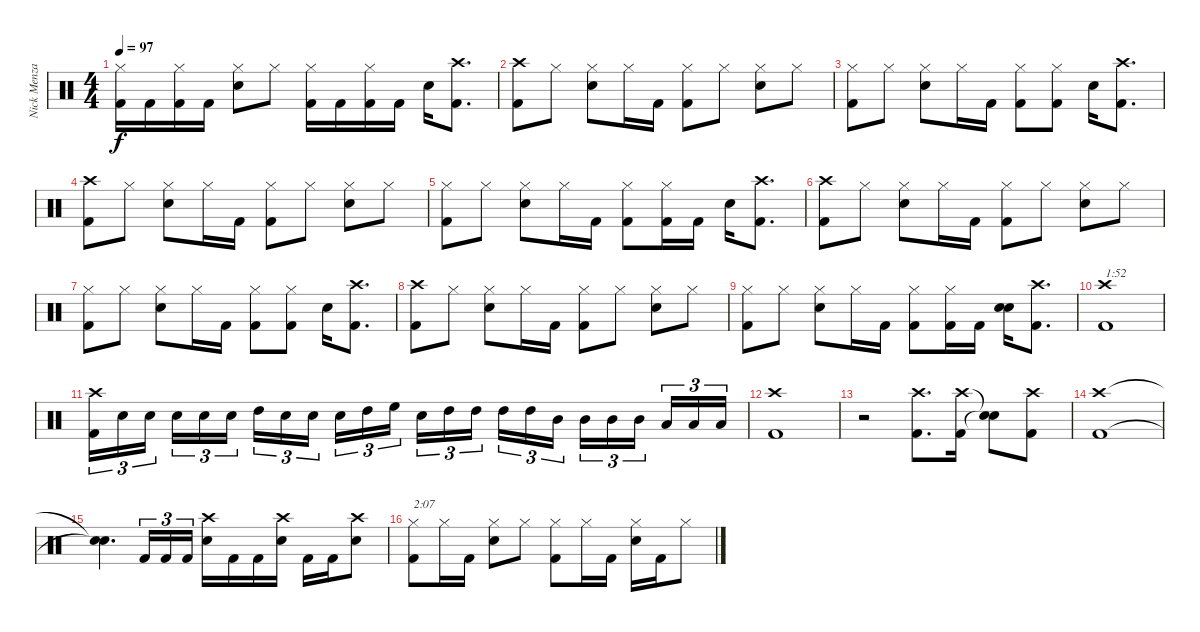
\track ("Nick Menza" "Nick Menza") {instrument percussion}
\staff {score}
\articulation defaults
\ts (4 4)
\tempo 97
\clef neutral
\ks c
("Hi-Hat (closed)" "Kick (hit) 2").16{dy f} "Kick (hit) 2".16 ("Hi-Hat (closed)" "Kick (hit) 2").16 "Kick (hit) 2".16 ("Hi-Hat (closed)" "Electric Snare (hit)").8 "Hi-Hat (closed)".8 ("Hi-Hat (closed)" "Kick (hit) 2").16 "Kick (hit) 2".16 ("Hi-Hat (closed)" "Kick (hit) 2").16 "Kick (hit) 2".16 "Electric Snare (hit)".16 ("Crash high (hit)" "Kick (hit) 2").8{d} |
("Crash high (hit)" "Kick (hit) 2").8 "Hi-Hat (closed)".8 ("Hi-Hat (closed)" "Electric Snare (hit)").8 "Hi-Hat (closed)".16 "Kick (hit) 2".16 ("Hi-Hat (closed)" "Kick (hit) 2").8 "Hi-Hat (closed)".8 ("Hi-Hat (closed)" "Electric Snare (hit)").8 "Hi-Hat (closed)".8 |
("Hi-Hat (closed)" "Kick (hit) 2").8 "Hi-Hat (closed)".8 ("Hi-Hat (closed)" "Electric Snare (hit)").8 "Hi-Hat (closed)".16 "Kick (hit) 2".16 ("Hi-Hat (closed)" "Kick (hit) 2").8 ("Hi-Hat (closed)" "Kick (hit) 2").8 "Electric Snare (hit)".16 ("Crash high (hit)" "Kick (hit) 2").8{d} |
("Crash high (hit)" "Kick (hit) 2").8 "Hi-Hat (closed)".8 ("Hi-Hat (closed)" "Electric Snare (hit)").8 "Hi-Hat (closed)".16 "Kick (hit) 2".16 ("Hi-Hat (closed)" "Kick (hit) 2").8 "Hi-Hat (closed)".8 ("Hi-Hat (closed)" "Electric Snare (hit)").8 "Hi-Hat (closed)".8 |
("Hi-Hat (closed)" "Kick (hit) 2").8 "Hi-Hat (closed)".8 ("Hi-Hat (closed)" "Electric Snare (hit)").8 "Hi-Hat (closed)".16 "Kick (hit) 2".16 ("Hi-Hat (closed)" "Kick (hit) 2").8 ("Hi-Hat (closed)" "Kick (hit) 2").16 "Kick (hit) 2".16 "Electric Snare (hit)".16 ("Crash high (hit)" "Kick (hit) 2").8{d} |
("Crash high (hit)" "Kick (hit) 2").8 "Hi-Hat (closed)".8 ("Hi-Hat (closed)" "Electric Snare (hit)").8 "Hi-Hat (closed)".16 "Kick (hit) 2".16 ("Hi-Hat (closed)" "Kick (hit) 2").8 "Hi-Hat (closed)".8 ("Hi-Hat (closed)" "Electric Snare (hit)").8 "Hi-Hat (closed)".8 |
("Hi-Hat (closed)" "Kick (hit) 2").8 "Hi-Hat (closed)".8 ("Hi-Hat (closed)" "Electric Snare (hit)").8 "Hi-Hat (closed)".16 "Kick (hit) 2".16 ("Hi-Hat (closed)" "Kick (hit) 2").8 ("Hi-Hat (closed)" "Kick (hit) 2").8 "Electric Snare (hit)".16 ("Crash high (hit)" "Kick (hit) 2").8{d} |
("Crash high (hit)" "Kick (hit) 2").8 "Hi-Hat (closed)".8 ("Hi-Hat (closed)" "Electric Snare (hit)").8 "Hi-Hat (closed)".16 "Kick (hit) 2".16 ("Hi-Hat (closed)" "Kick (hit) 2").8 "Hi-Hat (closed)".8 ("Hi-Hat (closed)" "Electric Snare (hit)").8 "Hi-Hat (closed)".8 |
("Hi-Hat (closed)" "Kick (hit) 2").8 "Hi-Hat (closed)".8 ("Hi-Hat (closed)" "Electric Snare (hit)").8 "Hi-Hat (closed)".16 "Kick (hit) 2".16 ("Hi-Hat (closed)" "Kick (hit) 2").8 ("Hi-Hat (closed)" "Kick (hit) 2").16 "Kick (hit) 2".16 ("Electric Snare (hit)" "Electric Snare (hit)").16 ("Crash high (hit)" "Kick (hit) 2").8{d} |
("Crash high (hit)" "Kick (hit) 2").1{txt "1:52"} |
("Crash high (hit)" "Kick (hit) 2").16{tu (3 2)} "Electric Snare (hit)".16{tu (3 2)} "Electric Snare (hit)".16{tu (3 2)} "Electric Snare (hit)".16{tu (3 2)} "Electric Snare (hit)".16{tu (3 2)} "Electric Snare (hit)".16{tu (3 2)} "High Tom (hit)".16{tu (3 2)} "Electric Snare (hit)".16{tu (3 2)} "Electric Snare (hit)".16{tu (3 2)} "Electric Snare (hit)".16{tu (3 2)} "High Tom (hit)".16{tu (3 2)} "High Floor Tom (hit)".16{tu (3 2)} "Electric Snare (hit)".16{tu (3 2)} "High Tom (hit)".16{tu (3 2)} "High Tom (hit)".16{tu (3 2)} "High Tom (hit)".16{tu (3 2)} "High Tom (hit)".16{tu (3 2)} "Mid Tom (hit)".16{tu (3 2)} "Mid Tom (hit)".16{tu (3 2)} "Mid Tom (hit)".16{tu (3 2)} "Mid Tom (hit)".16{tu (3 2)} "Low Tom (hit)".16{tu (3 2)} "Low Tom (hit)".16{tu (3 2)} "Low Tom (hit)".16{tu (3 2)} |
("Crash high (hit)" "Kick (hit) 2").1 |
r.2 ("Crash high (hit)" "Kick (hit) 2").8{d} ("Crash high (hit)" "Kick (hit) 2").16 ("Snare (hit)"{t} "Snare (hit)"{t}).8 ("Crash high (hit)" "Kick (hit) 2").8 |
("Crash high (hit)" "Kick (hit) 2").1 |
("Snare (hit)"{t} "Snare (hit)"{t}).4{d} "Kick (hit) 2".16{tu (3 2)} "Kick (hit) 2".16{tu (3 2)} "Kick (hit) 2".16{tu (3 2)} ("Crash high (hit)" "Electric Snare (hit)").16 "Kick (hit) 2".16 "Kick (hit) 2".16 ("Crash high (hit)" "Electric Snare (hit)").16 "Kick (hit) 2".16 "Kick (hit) 2".16 ("Crash high (hit)" "Electric Snare (hit)").8 |
("Hi-Hat (closed)" "Kick (hit) 2").8{txt "2:07"} "Hi-Hat (closed)".16 "Kick (hit) 2".16 ("Hi-Hat (closed)" "Electric Snare (hit)").8 "Hi-Hat (closed)".8 ("Hi-Hat (closed)" "Kick (hit) 2").8 "Hi-Hat (closed)".16 "Kick (hit) 2".16 ("Hi-Hat (closed)" "Electric Snare (hit)").16 "Kick (hit) 2".16 "Hi-Hat (closed)".8
